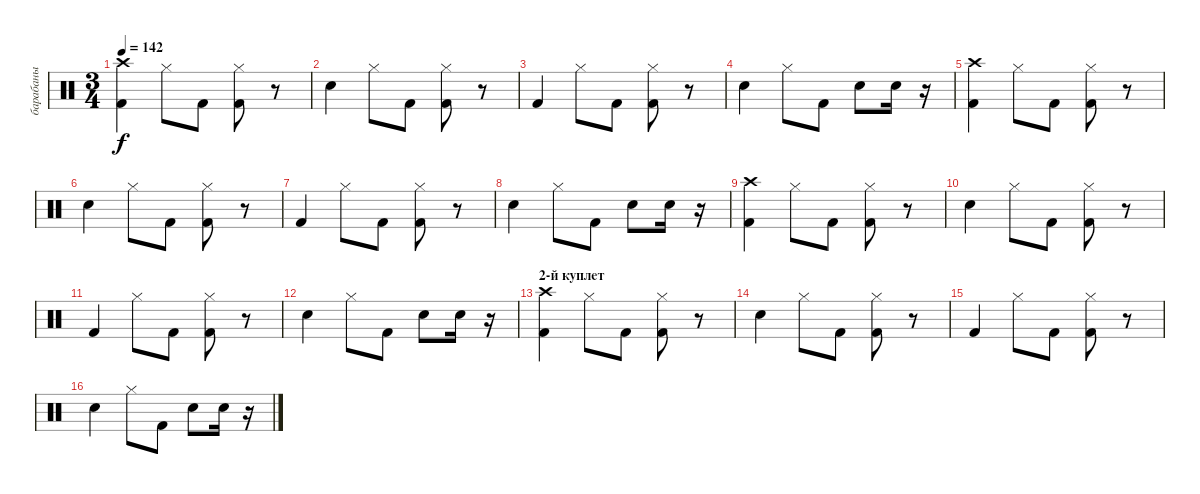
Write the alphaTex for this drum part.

\track ("барабаны" "барабаны") {instrument percussion}
\staff {score}
\articulation defaults
\ts (3 4)
\tempo 142
\clef neutral
\ks c
("Crash high (hit)" "Kick (hit) 2").4{dy f} "Hi-Hat (closed)".8 "Kick (hit) 2".8 ("Hi-Hat (closed)" "Kick (hit) 2").8 r.8 |
"Snare (hit) 2".4 "Hi-Hat (closed)".8 "Kick (hit) 2".8 ("Hi-Hat (closed)" "Kick (hit) 2").8 r.8 |
"Kick (hit) 2".4 "Hi-Hat (closed)".8 "Kick (hit) 2".8 ("Hi-Hat (closed)" "Kick (hit) 2").8 r.8 |
"Snare (hit) 2".4 "Hi-Hat (closed)".8 "Kick (hit) 2".8 "Snare (hit) 2".8 "Snare (hit) 2".16 r.16 |
("Crash high (hit)" "Kick (hit) 2").4 "Hi-Hat (closed)".8 "Kick (hit) 2".8 ("Hi-Hat (closed)" "Kick (hit) 2").8 r.8 |
"Snare (hit) 2".4 "Hi-Hat (closed)".8 "Kick (hit) 2".8 ("Hi-Hat (closed)" "Kick (hit) 2").8 r.8 |
"Kick (hit) 2".4 "Hi-Hat (closed)".8 "Kick (hit) 2".8 ("Hi-Hat (closed)" "Kick (hit) 2").8 r.8 |
"Snare (hit) 2".4 "Hi-Hat (closed)".8 "Kick (hit) 2".8 "Snare (hit) 2".8 "Snare (hit) 2".16 r.16 |
("Crash high (hit)" "Kick (hit) 2").4 "Hi-Hat (closed)".8 "Kick (hit) 2".8 ("Hi-Hat (closed)" "Kick (hit) 2").8 r.8 |
"Snare (hit) 2".4 "Hi-Hat (closed)".8 "Kick (hit) 2".8 ("Hi-Hat (closed)" "Kick (hit) 2").8 r.8 |
"Kick (hit) 2".4 "Hi-Hat (closed)".8 "Kick (hit) 2".8 ("Hi-Hat (closed)" "Kick (hit) 2").8 r.8 |
"Snare (hit) 2".4 "Hi-Hat (closed)".8 "Kick (hit) 2".8 "Snare (hit) 2".8 "Snare (hit) 2".16 r.16 |
\section ("" "2-й куплет")
("Crash high (hit)" "Kick (hit) 2").4 "Hi-Hat (closed)".8 "Kick (hit) 2".8 ("Hi-Hat (closed)" "Kick (hit) 2").8 r.8 |
"Snare (hit) 2".4 "Hi-Hat (closed)".8 "Kick (hit) 2".8 ("Hi-Hat (closed)" "Kick (hit) 2").8 r.8 |
"Kick (hit) 2".4 "Hi-Hat (closed)".8 "Kick (hit) 2".8 ("Hi-Hat (closed)" "Kick (hit) 2").8 r.8 |
"Snare (hit) 2".4 "Hi-Hat (closed)".8 "Kick (hit) 2".8 "Snare (hit) 2".8 "Snare (hit) 2".16 r.16
